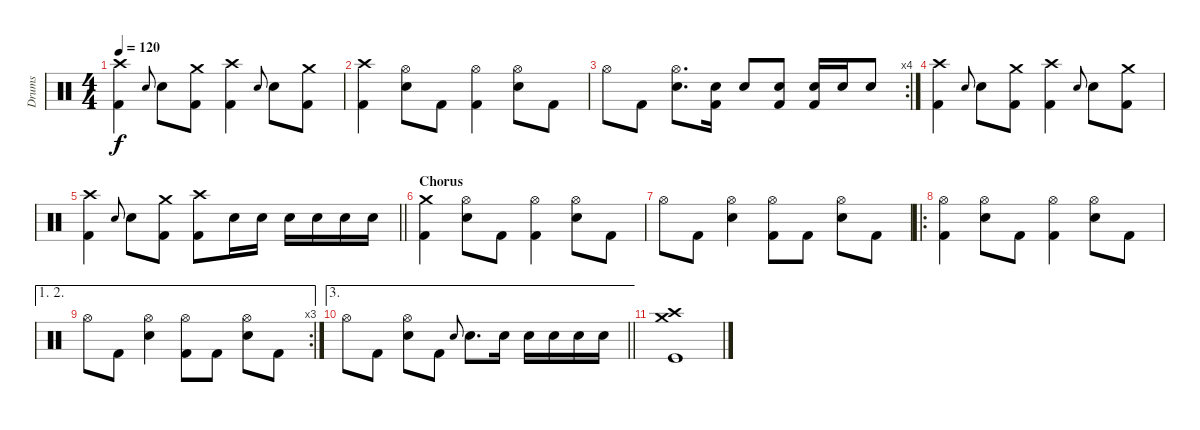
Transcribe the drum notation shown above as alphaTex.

\track ("Drums" "Drums") {instrument percussion}
\staff {score}
\articulation defaults
\ts (4 4)
\tempo 120
\clef neutral
\ks c
("Crash high (hit)" "Kick (hit) 2").4{dy f} "Snare (hit) 2".8{gr onbeat} "Snare (hit) 2".8 ("Crash medium (hit)" "Kick (hit) 2").8 ("Crash high (hit)" "Kick (hit) 2").4 "Snare (hit) 2".8{gr onbeat} "Snare (hit) 2".8 ("Crash medium (hit)" "Kick (hit) 2").8 |
("Crash high (hit)" "Kick (hit) 2").4 ("Hi-Hat (open)" "Snare (hit) 2").8 "Kick (hit) 2".8 ("Hi-Hat (open)" "Kick (hit) 2").4 ("Hi-Hat (open)" "Snare (hit) 2").8 "Kick (hit) 2".8 |
\rc 4 "Hi-Hat (open)".8 "Kick (hit) 2".8
("Hi-Hat (open)" "Snare (hit) 2").8{d} ("Snare (hit) 2" "Kick (hit) 2").16 "Snare (hit) 2".8 ("Snare (hit) 2" "Kick (hit) 2").8 ("Snare (hit) 2" "Kick (hit) 2").16 "Snare (hit) 2".16 "Snare (hit) 2".8 |
("Crash high (hit)" "Kick (hit) 2").4 "Snare (hit) 2".8{gr onbeat} "Snare (hit) 2".8 ("Crash medium (hit)" "Kick (hit) 2").8 ("Crash high (hit)" "Kick (hit) 2").4 "Snare (hit) 2".8{gr onbeat} "Snare (hit) 2".8 ("Crash medium (hit)" "Kick (hit) 2").8 |
\barLineRight lightlight
("Crash high (hit)" "Kick (hit) 2").4 "Snare (hit) 2".8{gr onbeat} "Snare (hit) 2".8 ("Crash medium (hit)" "Kick (hit) 2").8 ("Crash high (hit)" "Kick (hit) 2").8 "Snare (hit) 2".16 "Snare (hit) 2".16 "Snare (hit) 2".16 "Snare (hit) 2".16 "Snare (hit) 2".16 "Snare (hit) 2".16 |
\section ("" "Chorus")
("Crash medium (hit)" "Kick (hit) 2").4 ("Hi-Hat (open)" "Snare (hit) 2").8 "Kick (hit) 2".8 ("Hi-Hat (open)" "Kick (hit) 2").4 ("Hi-Hat (open)" "Snare (hit) 2").8 "Kick (hit) 2".8 |
"Hi-Hat (open)".8 "Kick (hit) 2".8 ("Hi-Hat (open)" "Snare (hit) 2").4 ("Hi-Hat (open)" "Kick (hit) 2").8 "Kick (hit) 2".8 ("Hi-Hat (open)" "Snare (hit) 2").8 "Kick (hit) 2".8 |
\ro
("Hi-Hat (open)" "Kick (hit) 2").4 ("Hi-Hat (open)" "Snare (hit) 2").8 "Kick (hit) 2".8 ("Hi-Hat (open)" "Kick (hit) 2").4 ("Hi-Hat (open)" "Snare (hit) 2").8 "Kick (hit) 2".8 |
\ae (1 2)
\rc 3 "Hi-Hat (open)".8 "Kick (hit) 2".8
("Hi-Hat (open)" "Snare (hit) 2").4 ("Hi-Hat (open)" "Kick (hit) 2").8 "Kick (hit) 2".8 ("Hi-Hat (open)" "Snare (hit) 2").8 "Kick (hit) 2".8 |
\ae 3
\barLineRight lightlight "Hi-Hat (open)".8 "Kick (hit) 2".8
("Hi-Hat (open)" "Snare (hit) 2").8 "Kick (hit) 2".8 "Snare (hit) 2".8{gr onbeat} "Snare (hit) 2".8{d} "Snare (hit) 2".16 "Snare (hit) 2".16 "Snare (hit) 2".16 "Snare (hit) 2".16 "Snare (hit) 2".16 |
("Crash high (hit)" "Crash medium (hit)" "Kick (hit)").1
